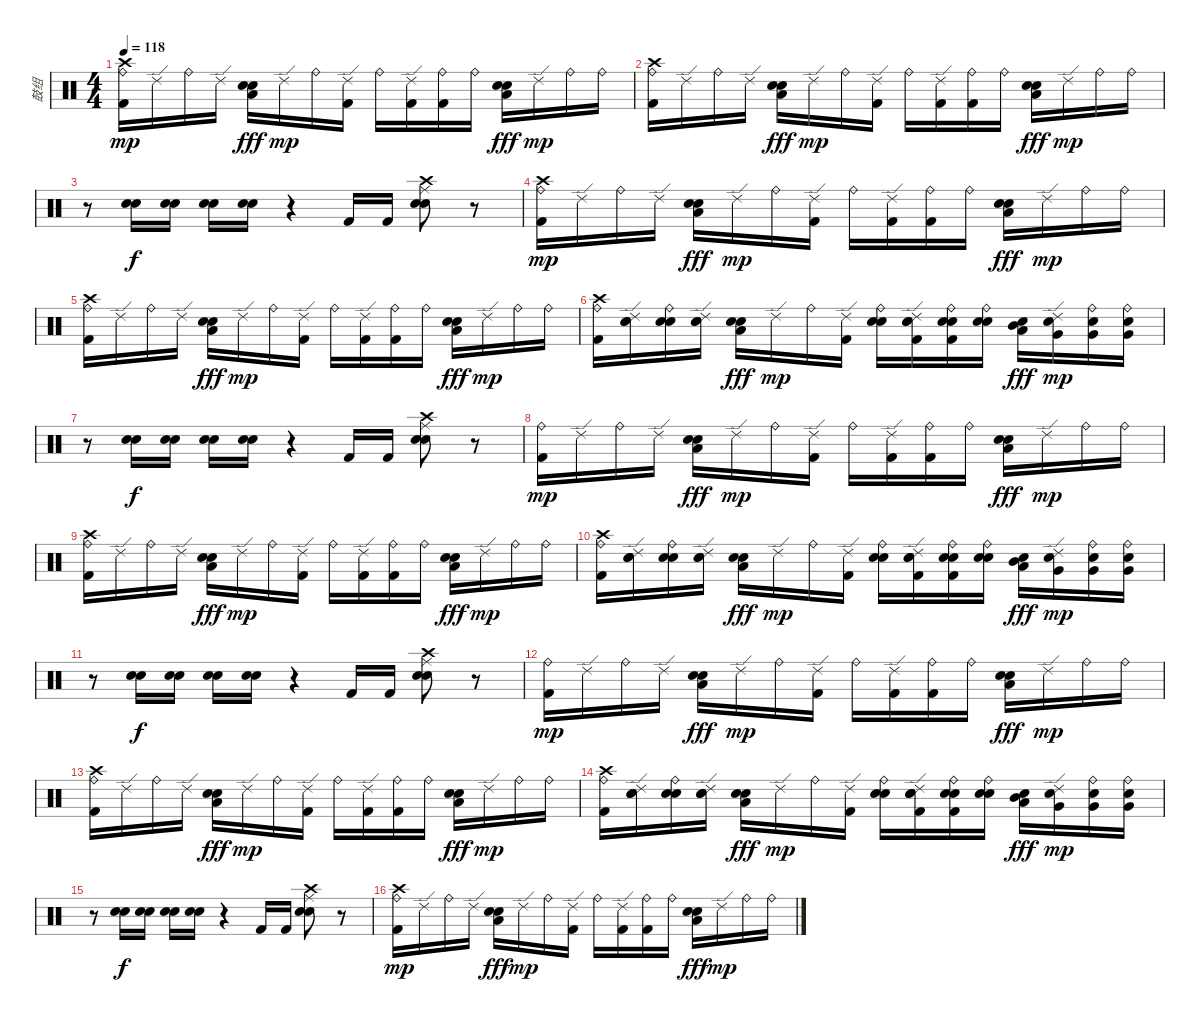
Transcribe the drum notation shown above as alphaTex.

\track ("鼓组" "鼓组") {instrument percussion}
\staff {score}
\articulation defaults
\ts (4 4)
\tempo 118
\clef neutral
\ks c
("Ride (bell)" "Crash high (hit)" "Kick (hit) 2").16{dy mp} "Ride (edge) 2".16 "Ride (bell)".16 "Ride (edge) 2".16 ("Low Tom (hit)" "Snare (hit) 2" "Electric Snare (hit)").16{dy fff} "Ride (edge) 2".16{dy mp} "Ride (bell)".16 ("Ride (edge) 2" "Kick (hit) 2").16 "Ride (bell)".16 ("Ride (edge) 2" "Kick (hit) 2").16 ("Ride (bell)" "Kick (hit) 2").16 "Ride (bell)".16 ("Low Tom (hit)" "Electric Snare (hit)" "Snare (hit) 2").16{dy fff} "Ride (edge) 2".16{dy mp} "Ride (bell)".16 "Ride (bell)".16 |
("Ride (bell)" "Crash high (hit)" "Kick (hit) 2").16 "Ride (edge) 2".16 "Ride (bell)".16 "Ride (edge) 2".16 ("Low Tom (hit)" "Snare (hit) 2" "Electric Snare (hit)").16{dy fff} "Ride (edge) 2".16{dy mp} "Ride (bell)".16 ("Ride (edge) 2" "Kick (hit) 2").16 "Ride (bell)".16 ("Ride (edge) 2" "Kick (hit) 2").16 ("Ride (bell)" "Kick (hit) 2").16 "Ride (bell)".16 ("Low Tom (hit)" "Electric Snare (hit)" "Snare (hit) 2").16{dy fff} "Ride (edge) 2".16{dy mp} "Ride (bell)".16 "Ride (bell)".16 |
r.8 ("Electric Snare (hit)" "Snare (hit) 2").16{dy f} ("Electric Snare (hit)" "Snare (hit) 2").16 ("Electric Snare (hit)" "Snare (hit) 2").16 ("Electric Snare (hit)" "Snare (hit) 2").16 r.4 "Kick (hit) 2".16 "Kick (hit) 2".16 ("Ride (middle)" "Crash high (hit)" "Electric Snare (hit)" "Snare (hit) 2").8 r.8 |
("Ride (bell)" "Crash high (hit)" "Kick (hit) 2").16{dy mp} "Ride (edge) 2".16 "Ride (bell)".16 "Ride (edge) 2".16 ("Low Tom (hit)" "Snare (hit) 2" "Electric Snare (hit)").16{dy fff} "Ride (edge) 2".16{dy mp} "Ride (bell)".16 ("Ride (edge) 2" "Kick (hit) 2").16 "Ride (bell)".16 ("Ride (edge) 2" "Kick (hit) 2").16 ("Ride (bell)" "Kick (hit) 2").16 "Ride (bell)".16 ("Low Tom (hit)" "Electric Snare (hit)" "Snare (hit) 2").16{dy fff} "Ride (edge) 2".16{dy mp} "Ride (bell)".16 "Ride (bell)".16 |
("Ride (bell)" "Crash high (hit)" "Kick (hit) 2").16 "Ride (edge) 2".16 "Ride (bell)".16 "Ride (edge) 2".16 ("Low Tom (hit)" "Snare (hit) 2" "Electric Snare (hit)").16{dy fff} "Ride (edge) 2".16{dy mp} "Ride (bell)".16 ("Ride (edge) 2" "Kick (hit) 2").16 "Ride (bell)".16 ("Ride (edge) 2" "Kick (hit) 2").16 ("Ride (bell)" "Kick (hit) 2").16 "Ride (bell)".16 ("Low Tom (hit)" "Electric Snare (hit)" "Snare (hit) 2").16{dy fff} "Ride (edge) 2".16{dy mp} "Ride (bell)".16 "Ride (bell)".16 |
("Ride (bell)" "Crash high (hit)" "Kick (hit) 2").16 ("Ride (edge) 2" "Snare (hit) 2" "Electric Snare (hit)").16 ("Ride (bell)" "Snare (hit) 2" "Electric Snare (hit)").16 ("Ride (edge) 2" "Snare (hit) 2" "Electric Snare (hit)").16 ("Low Tom (hit)" "Snare (hit) 2" "Electric Snare (hit)").16{dy fff} "Ride (edge) 2".16{dy mp} "Ride (bell)".16 ("Ride (edge) 2" "Kick (hit) 2").16 ("Ride (bell)" "Electric Snare (hit)" "Snare (hit) 2").16 ("Ride (edge) 2" "Electric Snare (hit)" "Snare (hit) 2" "Kick (hit) 2").16 ("Ride (bell)" "Electric Snare (hit)" "Snare (hit) 2" "Kick (hit) 2").16 ("Ride (bell)" "Electric Snare (hit)" "Snare (hit) 2").16 ("Low Tom (hit)" "Mid Tom (hit)" "Snare (hit) 2").16{dy fff} ("Ride (edge) 2" "Very Low Tom (hit)" "Snare (hit) 2").16{dy mp} ("Ride (bell)" "Very Low Tom (hit)" "Snare (hit) 2").16 ("Ride (bell)" "Very Low Tom (hit)" "Snare (hit) 2").16 |
r.8 ("Electric Snare (hit)" "Snare (hit) 2").16{dy f} ("Electric Snare (hit)" "Snare (hit) 2").16 ("Electric Snare (hit)" "Snare (hit) 2").16 ("Electric Snare (hit)" "Snare (hit) 2").16 r.4 "Kick (hit) 2".16 "Kick (hit) 2".16 ("Ride (middle)" "Crash high (hit)" "Electric Snare (hit)" "Snare (hit) 2").8 r.8 |
("Ride (bell)" "Kick (hit) 2").16{dy mp} "Ride (edge) 2".16 "Ride (bell)".16 "Ride (edge) 2".16 ("Low Tom (hit)" "Snare (hit) 2" "Electric Snare (hit)").16{dy fff} "Ride (edge) 2".16{dy mp} "Ride (bell)".16 ("Ride (edge) 2" "Kick (hit) 2").16 "Ride (bell)".16 ("Ride (edge) 2" "Kick (hit) 2").16 ("Ride (bell)" "Kick (hit) 2").16 "Ride (bell)".16 ("Low Tom (hit)" "Electric Snare (hit)" "Snare (hit) 2").16{dy fff} "Ride (edge) 2".16{dy mp} "Ride (bell)".16 "Ride (bell)".16 |
("Ride (bell)" "Crash high (hit)" "Kick (hit) 2").16 "Ride (edge) 2".16 "Ride (bell)".16 "Ride (edge) 2".16 ("Low Tom (hit)" "Snare (hit) 2" "Electric Snare (hit)").16{dy fff} "Ride (edge) 2".16{dy mp} "Ride (bell)".16 ("Ride (edge) 2" "Kick (hit) 2").16 "Ride (bell)".16 ("Ride (edge) 2" "Kick (hit) 2").16 ("Ride (bell)" "Kick (hit) 2").16 "Ride (bell)".16 ("Low Tom (hit)" "Electric Snare (hit)" "Snare (hit) 2").16{dy fff} "Ride (edge) 2".16{dy mp} "Ride (bell)".16 "Ride (bell)".16 |
("Ride (bell)" "Crash high (hit)" "Kick (hit) 2").16 ("Ride (edge) 2" "Snare (hit) 2" "Electric Snare (hit)").16 ("Ride (bell)" "Snare (hit) 2" "Electric Snare (hit)").16 ("Ride (edge) 2" "Snare (hit) 2" "Electric Snare (hit)").16 ("Low Tom (hit)" "Snare (hit) 2" "Electric Snare (hit)").16{dy fff} "Ride (edge) 2".16{dy mp} "Ride (bell)".16 ("Ride (edge) 2" "Kick (hit) 2").16 ("Ride (bell)" "Electric Snare (hit)" "Snare (hit) 2").16 ("Ride (edge) 2" "Electric Snare (hit)" "Snare (hit) 2" "Kick (hit) 2").16 ("Ride (bell)" "Electric Snare (hit)" "Snare (hit) 2" "Kick (hit) 2").16 ("Ride (bell)" "Electric Snare (hit)" "Snare (hit) 2").16 ("Low Tom (hit)" "Mid Tom (hit)" "Snare (hit) 2").16{dy fff} ("Ride (edge) 2" "Very Low Tom (hit)" "Snare (hit) 2").16{dy mp} ("Ride (bell)" "Very Low Tom (hit)" "Snare (hit) 2").16 ("Ride (bell)" "Very Low Tom (hit)" "Snare (hit) 2").16 |
r.8 ("Electric Snare (hit)" "Snare (hit) 2").16{dy f} ("Electric Snare (hit)" "Snare (hit) 2").16 ("Electric Snare (hit)" "Snare (hit) 2").16 ("Electric Snare (hit)" "Snare (hit) 2").16 r.4 "Kick (hit) 2".16 "Kick (hit) 2".16 ("Ride (middle)" "Crash high (hit)" "Electric Snare (hit)" "Snare (hit) 2").8 r.8 |
("Ride (bell)" "Kick (hit) 2").16{dy mp} "Ride (edge) 2".16 "Ride (bell)".16 "Ride (edge) 2".16 ("Low Tom (hit)" "Snare (hit) 2" "Electric Snare (hit)").16{dy fff} "Ride (edge) 2".16{dy mp} "Ride (bell)".16 ("Ride (edge) 2" "Kick (hit) 2").16 "Ride (bell)".16 ("Ride (edge) 2" "Kick (hit) 2").16 ("Ride (bell)" "Kick (hit) 2").16 "Ride (bell)".16 ("Low Tom (hit)" "Electric Snare (hit)" "Snare (hit) 2").16{dy fff} "Ride (edge) 2".16{dy mp} "Ride (bell)".16 "Ride (bell)".16 |
("Ride (bell)" "Crash high (hit)" "Kick (hit) 2").16 "Ride (edge) 2".16 "Ride (bell)".16 "Ride (edge) 2".16 ("Low Tom (hit)" "Snare (hit) 2" "Electric Snare (hit)").16{dy fff} "Ride (edge) 2".16{dy mp} "Ride (bell)".16 ("Ride (edge) 2" "Kick (hit) 2").16 "Ride (bell)".16 ("Ride (edge) 2" "Kick (hit) 2").16 ("Ride (bell)" "Kick (hit) 2").16 "Ride (bell)".16 ("Low Tom (hit)" "Electric Snare (hit)" "Snare (hit) 2").16{dy fff} "Ride (edge) 2".16{dy mp} "Ride (bell)".16 "Ride (bell)".16 |
("Ride (bell)" "Crash high (hit)" "Kick (hit) 2").16 ("Ride (edge) 2" "Snare (hit) 2" "Electric Snare (hit)").16 ("Ride (bell)" "Snare (hit) 2" "Electric Snare (hit)").16 ("Ride (edge) 2" "Snare (hit) 2" "Electric Snare (hit)").16 ("Low Tom (hit)" "Snare (hit) 2" "Electric Snare (hit)").16{dy fff} "Ride (edge) 2".16{dy mp} "Ride (bell)".16 ("Ride (edge) 2" "Kick (hit) 2").16 ("Ride (bell)" "Electric Snare (hit)" "Snare (hit) 2").16 ("Ride (edge) 2" "Electric Snare (hit)" "Snare (hit) 2" "Kick (hit) 2").16 ("Ride (bell)" "Electric Snare (hit)" "Snare (hit) 2" "Kick (hit) 2").16 ("Ride (bell)" "Electric Snare (hit)" "Snare (hit) 2").16 ("Low Tom (hit)" "Mid Tom (hit)" "Snare (hit) 2").16{dy fff} ("Ride (edge) 2" "Very Low Tom (hit)" "Snare (hit) 2").16{dy mp} ("Ride (bell)" "Very Low Tom (hit)" "Snare (hit) 2").16 ("Ride (bell)" "Very Low Tom (hit)" "Snare (hit) 2").16 |
r.8 ("Electric Snare (hit)" "Snare (hit) 2").16{dy f} ("Electric Snare (hit)" "Snare (hit) 2").16 ("Electric Snare (hit)" "Snare (hit) 2").16 ("Electric Snare (hit)" "Snare (hit) 2").16 r.4 "Kick (hit) 2".16 "Kick (hit) 2".16 ("Ride (middle)" "Crash high (hit)" "Electric Snare (hit)" "Snare (hit) 2").8 r.8 |
("Ride (bell)" "Crash high (hit)" "Kick (hit) 2").16{dy mp} "Ride (edge) 2".16 "Ride (bell)".16 "Ride (edge) 2".16 ("Low Tom (hit)" "Snare (hit) 2" "Electric Snare (hit)").16{dy fff} "Ride (edge) 2".16{dy mp} "Ride (bell)".16 ("Ride (edge) 2" "Kick (hit) 2").16 "Ride (bell)".16 ("Ride (edge) 2" "Kick (hit) 2").16 ("Ride (bell)" "Kick (hit) 2").16 "Ride (bell)".16 ("Low Tom (hit)" "Electric Snare (hit)" "Snare (hit) 2").16{dy fff} "Ride (edge) 2".16{dy mp} "Ride (bell)".16 "Ride (bell)".16
